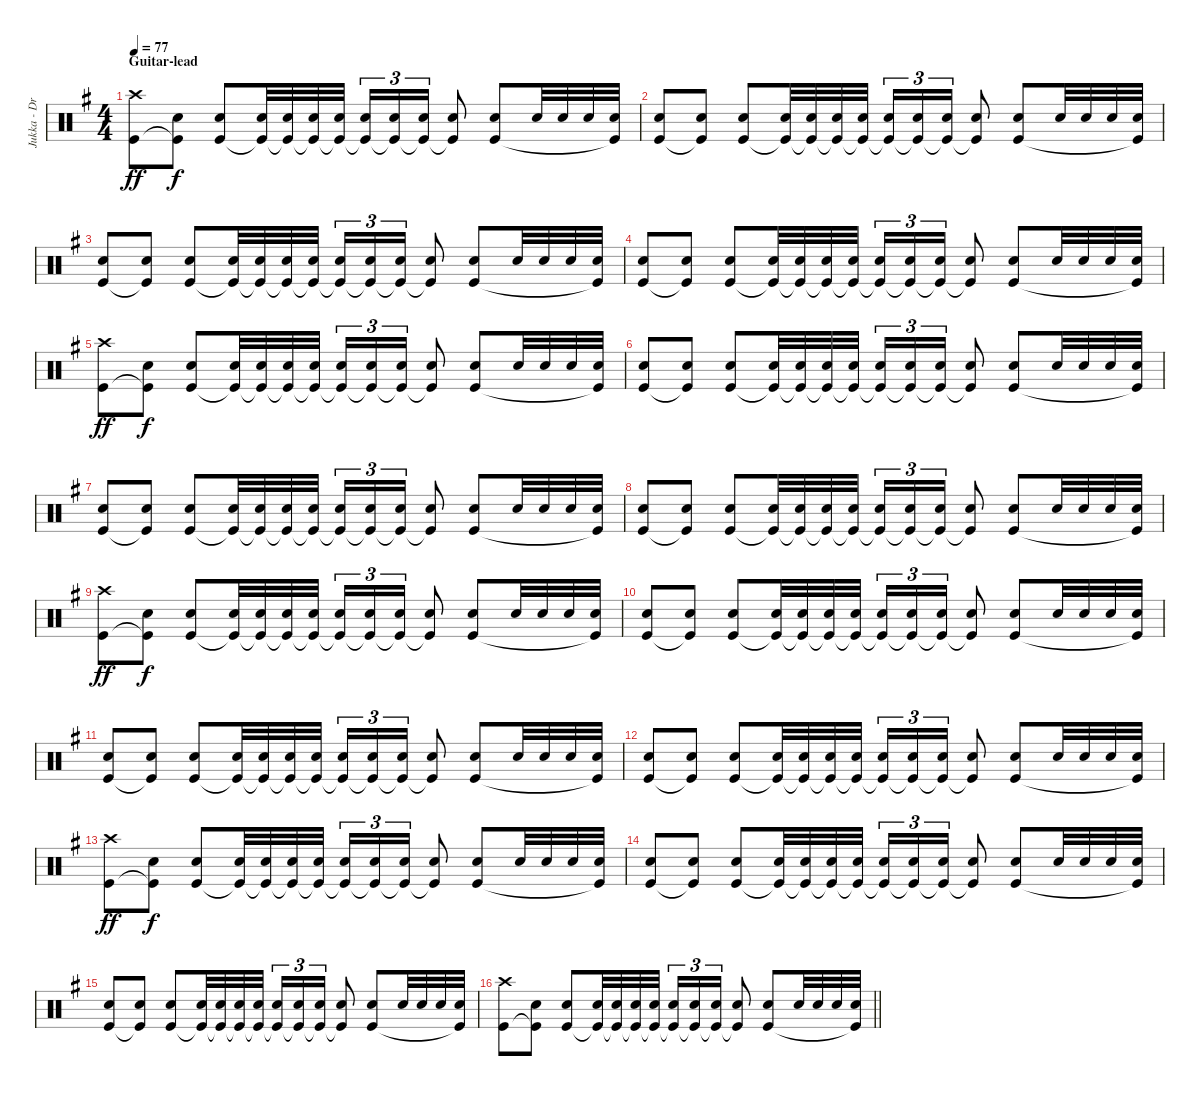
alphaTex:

\track ("Jukka - Drums" "Jukka - Dr") {instrument percussion}
\staff {score}
\articulation defaults
\ts (4 4)
\section ("" "Guitar-lead")
\tempo 77
\clef neutral
\ks eminor
("Crash high (hit)" "Kick (hit)").8{dy ff} ("Snare (hit) 2" "Kick (hit)"{t}).8{dy f} ("Snare (hit) 2" "Kick (hit)").8 ("Snare (hit) 2" "Kick (hit)"{t}).32 ("Snare (hit) 2" "Kick (hit)"{t}).32 ("Snare (hit) 2" "Kick (hit)"{t}).32 ("Snare (hit) 2" "Kick (hit)"{t}).32 ("Snare (hit) 2" "Kick (hit)"{t}).16{tu (3 2)} ("Snare (hit) 2" "Kick (hit)"{t}).16{tu (3 2)} ("Snare (hit) 2" "Kick (hit)"{t}).16{tu (3 2)} ("Snare (hit) 2" "Kick (hit)"{t}).8 ("Snare (hit) 2" "Kick (hit)").8 "Snare (hit) 2".32 "Snare (hit) 2".32 "Snare (hit) 2".32 ("Snare (hit) 2" "Kick (hit)"{t}).32 |
("Snare (hit) 2" "Kick (hit)").8 ("Snare (hit) 2" "Kick (hit)"{t}).8 ("Snare (hit) 2" "Kick (hit)").8 ("Snare (hit) 2" "Kick (hit)"{t}).32 ("Snare (hit) 2" "Kick (hit)"{t}).32 ("Snare (hit) 2" "Kick (hit)"{t}).32 ("Snare (hit) 2" "Kick (hit)"{t}).32 ("Snare (hit) 2" "Kick (hit)"{t}).16{tu (3 2)} ("Snare (hit) 2" "Kick (hit)"{t}).16{tu (3 2)} ("Snare (hit) 2" "Kick (hit)"{t}).16{tu (3 2)} ("Snare (hit) 2" "Kick (hit)"{t}).8 ("Snare (hit) 2" "Kick (hit)").8 "Snare (hit) 2".32 "Snare (hit) 2".32 "Snare (hit) 2".32 ("Snare (hit) 2" "Kick (hit)"{t}).32 |
("Snare (hit) 2" "Kick (hit)").8 ("Snare (hit) 2" "Kick (hit)"{t}).8 ("Snare (hit) 2" "Kick (hit)").8 ("Snare (hit) 2" "Kick (hit)"{t}).32 ("Snare (hit) 2" "Kick (hit)"{t}).32 ("Snare (hit) 2" "Kick (hit)"{t}).32 ("Snare (hit) 2" "Kick (hit)"{t}).32 ("Snare (hit) 2" "Kick (hit)"{t}).16{tu (3 2)} ("Snare (hit) 2" "Kick (hit)"{t}).16{tu (3 2)} ("Snare (hit) 2" "Kick (hit)"{t}).16{tu (3 2)} ("Snare (hit) 2" "Kick (hit)"{t}).8 ("Snare (hit) 2" "Kick (hit)").8 "Snare (hit) 2".32 "Snare (hit) 2".32 "Snare (hit) 2".32 ("Snare (hit) 2" "Kick (hit)"{t}).32 |
("Snare (hit) 2" "Kick (hit)").8 ("Snare (hit) 2" "Kick (hit)"{t}).8 ("Snare (hit) 2" "Kick (hit)").8 ("Snare (hit) 2" "Kick (hit)"{t}).32 ("Snare (hit) 2" "Kick (hit)"{t}).32 ("Snare (hit) 2" "Kick (hit)"{t}).32 ("Snare (hit) 2" "Kick (hit)"{t}).32 ("Snare (hit) 2" "Kick (hit)"{t}).16{tu (3 2)} ("Snare (hit) 2" "Kick (hit)"{t}).16{tu (3 2)} ("Snare (hit) 2" "Kick (hit)"{t}).16{tu (3 2)} ("Snare (hit) 2" "Kick (hit)"{t}).8 ("Snare (hit) 2" "Kick (hit)").8 "Snare (hit) 2".32 "Snare (hit) 2".32 "Snare (hit) 2".32 ("Snare (hit) 2" "Kick (hit)"{t}).32 |
("Crash high (hit)" "Kick (hit)").8{dy ff} ("Snare (hit) 2" "Kick (hit)"{t}).8{dy f} ("Snare (hit) 2" "Kick (hit)").8 ("Snare (hit) 2" "Kick (hit)"{t}).32 ("Snare (hit) 2" "Kick (hit)"{t}).32 ("Snare (hit) 2" "Kick (hit)"{t}).32 ("Snare (hit) 2" "Kick (hit)"{t}).32 ("Snare (hit) 2" "Kick (hit)"{t}).16{tu (3 2)} ("Snare (hit) 2" "Kick (hit)"{t}).16{tu (3 2)} ("Snare (hit) 2" "Kick (hit)"{t}).16{tu (3 2)} ("Snare (hit) 2" "Kick (hit)"{t}).8 ("Snare (hit) 2" "Kick (hit)").8 "Snare (hit) 2".32 "Snare (hit) 2".32 "Snare (hit) 2".32 ("Snare (hit) 2" "Kick (hit)"{t}).32 |
("Snare (hit) 2" "Kick (hit)").8 ("Snare (hit) 2" "Kick (hit)"{t}).8 ("Snare (hit) 2" "Kick (hit)").8 ("Snare (hit) 2" "Kick (hit)"{t}).32 ("Snare (hit) 2" "Kick (hit)"{t}).32 ("Snare (hit) 2" "Kick (hit)"{t}).32 ("Snare (hit) 2" "Kick (hit)"{t}).32 ("Snare (hit) 2" "Kick (hit)"{t}).16{tu (3 2)} ("Snare (hit) 2" "Kick (hit)"{t}).16{tu (3 2)} ("Snare (hit) 2" "Kick (hit)"{t}).16{tu (3 2)} ("Snare (hit) 2" "Kick (hit)"{t}).8 ("Snare (hit) 2" "Kick (hit)").8 "Snare (hit) 2".32 "Snare (hit) 2".32 "Snare (hit) 2".32 ("Snare (hit) 2" "Kick (hit)"{t}).32 |
("Snare (hit) 2" "Kick (hit)").8 ("Snare (hit) 2" "Kick (hit)"{t}).8 ("Snare (hit) 2" "Kick (hit)").8 ("Snare (hit) 2" "Kick (hit)"{t}).32 ("Snare (hit) 2" "Kick (hit)"{t}).32 ("Snare (hit) 2" "Kick (hit)"{t}).32 ("Snare (hit) 2" "Kick (hit)"{t}).32 ("Snare (hit) 2" "Kick (hit)"{t}).16{tu (3 2)} ("Snare (hit) 2" "Kick (hit)"{t}).16{tu (3 2)} ("Snare (hit) 2" "Kick (hit)"{t}).16{tu (3 2)} ("Snare (hit) 2" "Kick (hit)"{t}).8 ("Snare (hit) 2" "Kick (hit)").8 "Snare (hit) 2".32 "Snare (hit) 2".32 "Snare (hit) 2".32 ("Snare (hit) 2" "Kick (hit)"{t}).32 |
("Snare (hit) 2" "Kick (hit)").8 ("Snare (hit) 2" "Kick (hit)"{t}).8 ("Snare (hit) 2" "Kick (hit)").8 ("Snare (hit) 2" "Kick (hit)"{t}).32 ("Snare (hit) 2" "Kick (hit)"{t}).32 ("Snare (hit) 2" "Kick (hit)"{t}).32 ("Snare (hit) 2" "Kick (hit)"{t}).32 ("Snare (hit) 2" "Kick (hit)"{t}).16{tu (3 2)} ("Snare (hit) 2" "Kick (hit)"{t}).16{tu (3 2)} ("Snare (hit) 2" "Kick (hit)"{t}).16{tu (3 2)} ("Snare (hit) 2" "Kick (hit)"{t}).8 ("Snare (hit) 2" "Kick (hit)").8 "Snare (hit) 2".32 "Snare (hit) 2".32 "Snare (hit) 2".32 ("Snare (hit) 2" "Kick (hit)"{t}).32 |
("Crash high (hit)" "Kick (hit)").8{dy ff} ("Snare (hit) 2" "Kick (hit)"{t}).8{dy f} ("Snare (hit) 2" "Kick (hit)").8 ("Snare (hit) 2" "Kick (hit)"{t}).32 ("Snare (hit) 2" "Kick (hit)"{t}).32 ("Snare (hit) 2" "Kick (hit)"{t}).32 ("Snare (hit) 2" "Kick (hit)"{t}).32 ("Snare (hit) 2" "Kick (hit)"{t}).16{tu (3 2)} ("Snare (hit) 2" "Kick (hit)"{t}).16{tu (3 2)} ("Snare (hit) 2" "Kick (hit)"{t}).16{tu (3 2)} ("Snare (hit) 2" "Kick (hit)"{t}).8 ("Snare (hit) 2" "Kick (hit)").8 "Snare (hit) 2".32 "Snare (hit) 2".32 "Snare (hit) 2".32 ("Snare (hit) 2" "Kick (hit)"{t}).32 |
("Snare (hit) 2" "Kick (hit)").8 ("Snare (hit) 2" "Kick (hit)"{t}).8 ("Snare (hit) 2" "Kick (hit)").8 ("Snare (hit) 2" "Kick (hit)"{t}).32 ("Snare (hit) 2" "Kick (hit)"{t}).32 ("Snare (hit) 2" "Kick (hit)"{t}).32 ("Snare (hit) 2" "Kick (hit)"{t}).32 ("Snare (hit) 2" "Kick (hit)"{t}).16{tu (3 2)} ("Snare (hit) 2" "Kick (hit)"{t}).16{tu (3 2)} ("Snare (hit) 2" "Kick (hit)"{t}).16{tu (3 2)} ("Snare (hit) 2" "Kick (hit)"{t}).8 ("Snare (hit) 2" "Kick (hit)").8 "Snare (hit) 2".32 "Snare (hit) 2".32 "Snare (hit) 2".32 ("Snare (hit) 2" "Kick (hit)"{t}).32 |
("Snare (hit) 2" "Kick (hit)").8 ("Snare (hit) 2" "Kick (hit)"{t}).8 ("Snare (hit) 2" "Kick (hit)").8 ("Snare (hit) 2" "Kick (hit)"{t}).32 ("Snare (hit) 2" "Kick (hit)"{t}).32 ("Snare (hit) 2" "Kick (hit)"{t}).32 ("Snare (hit) 2" "Kick (hit)"{t}).32 ("Snare (hit) 2" "Kick (hit)"{t}).16{tu (3 2)} ("Snare (hit) 2" "Kick (hit)"{t}).16{tu (3 2)} ("Snare (hit) 2" "Kick (hit)"{t}).16{tu (3 2)} ("Snare (hit) 2" "Kick (hit)"{t}).8 ("Snare (hit) 2" "Kick (hit)").8 "Snare (hit) 2".32 "Snare (hit) 2".32 "Snare (hit) 2".32 ("Snare (hit) 2" "Kick (hit)"{t}).32 |
("Snare (hit) 2" "Kick (hit)").8 ("Snare (hit) 2" "Kick (hit)"{t}).8 ("Snare (hit) 2" "Kick (hit)").8 ("Snare (hit) 2" "Kick (hit)"{t}).32 ("Snare (hit) 2" "Kick (hit)"{t}).32 ("Snare (hit) 2" "Kick (hit)"{t}).32 ("Snare (hit) 2" "Kick (hit)"{t}).32 ("Snare (hit) 2" "Kick (hit)"{t}).16{tu (3 2)} ("Snare (hit) 2" "Kick (hit)"{t}).16{tu (3 2)} ("Snare (hit) 2" "Kick (hit)"{t}).16{tu (3 2)} ("Snare (hit) 2" "Kick (hit)"{t}).8 ("Snare (hit) 2" "Kick (hit)").8 "Snare (hit) 2".32 "Snare (hit) 2".32 "Snare (hit) 2".32 ("Snare (hit) 2" "Kick (hit)"{t}).32 |
("Crash high (hit)" "Kick (hit)").8{dy ff} ("Snare (hit) 2" "Kick (hit)"{t}).8{dy f} ("Snare (hit) 2" "Kick (hit)").8 ("Snare (hit) 2" "Kick (hit)"{t}).32 ("Snare (hit) 2" "Kick (hit)"{t}).32 ("Snare (hit) 2" "Kick (hit)"{t}).32 ("Snare (hit) 2" "Kick (hit)"{t}).32 ("Snare (hit) 2" "Kick (hit)"{t}).16{tu (3 2)} ("Snare (hit) 2" "Kick (hit)"{t}).16{tu (3 2)} ("Snare (hit) 2" "Kick (hit)"{t}).16{tu (3 2)} ("Snare (hit) 2" "Kick (hit)"{t}).8 ("Snare (hit) 2" "Kick (hit)").8 "Snare (hit) 2".32 "Snare (hit) 2".32 "Snare (hit) 2".32 ("Snare (hit) 2" "Kick (hit)"{t}).32 |
("Snare (hit) 2" "Kick (hit)").8 ("Snare (hit) 2" "Kick (hit)"{t}).8 ("Snare (hit) 2" "Kick (hit)").8 ("Snare (hit) 2" "Kick (hit)"{t}).32 ("Snare (hit) 2" "Kick (hit)"{t}).32 ("Snare (hit) 2" "Kick (hit)"{t}).32 ("Snare (hit) 2" "Kick (hit)"{t}).32 ("Snare (hit) 2" "Kick (hit)"{t}).16{tu (3 2)} ("Snare (hit) 2" "Kick (hit)"{t}).16{tu (3 2)} ("Snare (hit) 2" "Kick (hit)"{t}).16{tu (3 2)} ("Snare (hit) 2" "Kick (hit)"{t}).8 ("Snare (hit) 2" "Kick (hit)").8 "Snare (hit) 2".32 "Snare (hit) 2".32 "Snare (hit) 2".32 ("Snare (hit) 2" "Kick (hit)"{t}).32 |
("Snare (hit) 2" "Kick (hit)").8 ("Snare (hit) 2" "Kick (hit)"{t}).8 ("Snare (hit) 2" "Kick (hit)").8 ("Snare (hit) 2" "Kick (hit)"{t}).32 ("Snare (hit) 2" "Kick (hit)"{t}).32 ("Snare (hit) 2" "Kick (hit)"{t}).32 ("Snare (hit) 2" "Kick (hit)"{t}).32 ("Snare (hit) 2" "Kick (hit)"{t}).16{tu (3 2)} ("Snare (hit) 2" "Kick (hit)"{t}).16{tu (3 2)} ("Snare (hit) 2" "Kick (hit)"{t}).16{tu (3 2)} ("Snare (hit) 2" "Kick (hit)"{t}).8 ("Snare (hit) 2" "Kick (hit)").8 "Snare (hit) 2".32 "Snare (hit) 2".32 "Snare (hit) 2".32 ("Snare (hit) 2" "Kick (hit)"{t}).32 |
\barLineRight lightlight
("Crash high (hit)" "Kick (hit)").8 ("Snare (hit) 2" "Kick (hit)"{t}).8 ("Snare (hit) 2" "Kick (hit)").8 ("Snare (hit) 2" "Kick (hit)"{t}).32 ("Snare (hit) 2" "Kick (hit)"{t}).32 ("Snare (hit) 2" "Kick (hit)"{t}).32 ("Snare (hit) 2" "Kick (hit)"{t}).32 ("Snare (hit) 2" "Kick (hit)"{t}).16{tu (3 2)} ("Snare (hit) 2" "Kick (hit)"{t}).16{tu (3 2)} ("Snare (hit) 2" "Kick (hit)"{t}).16{tu (3 2)} ("Snare (hit) 2" "Kick (hit)"{t}).8 ("Snare (hit) 2" "Kick (hit)").8 "Snare (hit) 2".32 "Snare (hit) 2".32 "Snare (hit) 2".32 ("Snare (hit) 2" "Kick (hit)"{t}).32
